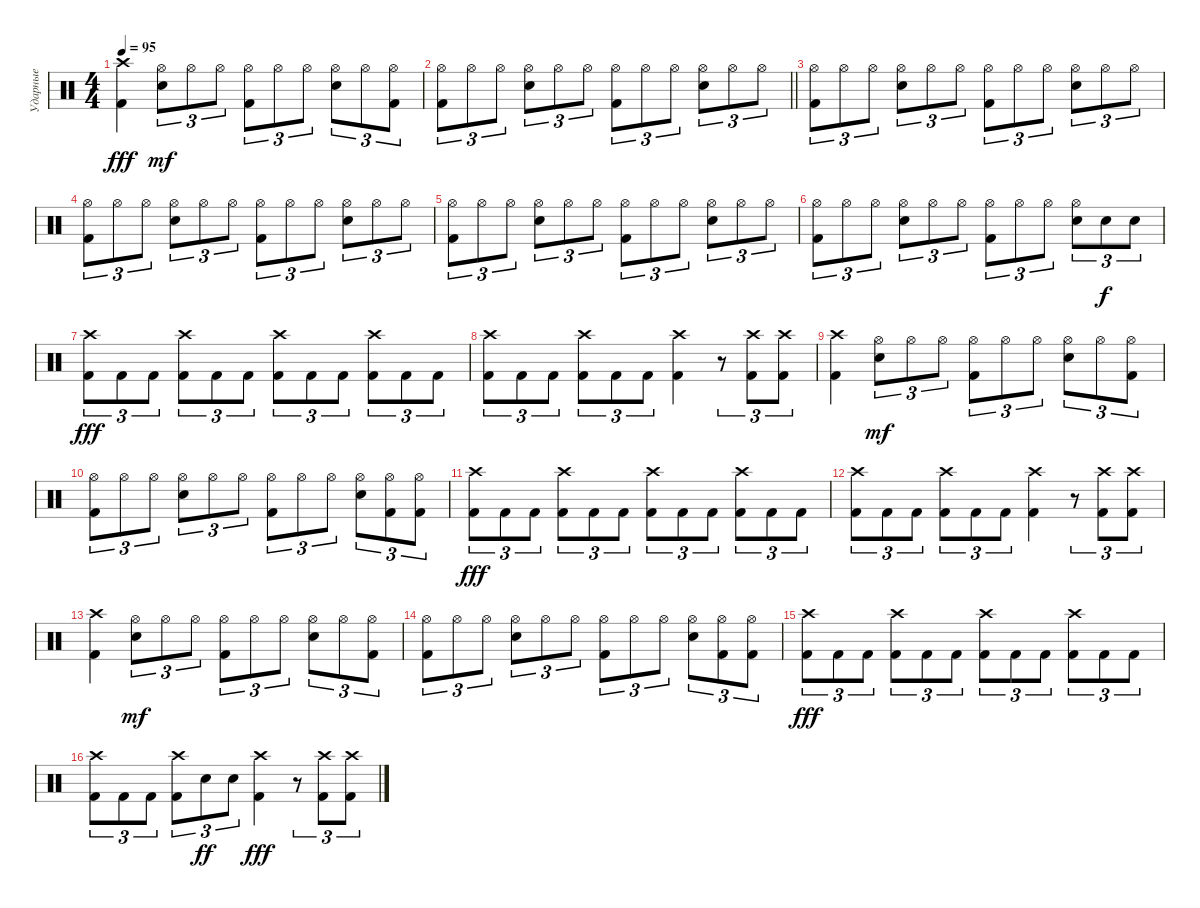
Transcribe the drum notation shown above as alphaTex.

\track ("Ударные" "Ударные") {instrument percussion}
\staff
\articulation defaults
\ts (4 4)
\tempo 95
\clef neutral
\ks c
("Kick (hit) 2" "Crash high (hit)").4{dy fff} ("Snare (hit) 2" "Hi-Hat (open)").8{tu (3 2) dy mf} "Hi-Hat (open)".8{tu (3 2)} "Hi-Hat (open)".8{tu (3 2)} ("Kick (hit) 2" "Hi-Hat (open)").8{tu (3 2)} "Hi-Hat (open)".8{tu (3 2)} "Hi-Hat (open)".8{tu (3 2)} ("Snare (hit) 2" "Hi-Hat (open)").8{tu (3 2)} "Hi-Hat (open)".8{tu (3 2)} ("Kick (hit) 2" "Hi-Hat (open)").8{tu (3 2)} |
\barLineRight lightlight
("Kick (hit) 2" "Hi-Hat (open)").8{tu (3 2)} "Hi-Hat (open)".8{tu (3 2)} "Hi-Hat (open)".8{tu (3 2)} ("Snare (hit) 2" "Hi-Hat (open)").8{tu (3 2)} "Hi-Hat (open)".8{tu (3 2)} "Hi-Hat (open)".8{tu (3 2)} ("Kick (hit) 2" "Hi-Hat (open)").8{tu (3 2)} "Hi-Hat (open)".8{tu (3 2)} "Hi-Hat (open)".8{tu (3 2)} ("Snare (hit) 2" "Hi-Hat (open)").8{tu (3 2)} "Hi-Hat (open)".8{tu (3 2)} "Hi-Hat (open)".8{tu (3 2)} |
("Kick (hit) 2" "Hi-Hat (open)").8{tu (3 2)} "Hi-Hat (open)".8{tu (3 2)} "Hi-Hat (open)".8{tu (3 2)} ("Snare (hit) 2" "Hi-Hat (open)").8{tu (3 2)} "Hi-Hat (open)".8{tu (3 2)} "Hi-Hat (open)".8{tu (3 2)} ("Kick (hit) 2" "Hi-Hat (open)").8{tu (3 2)} "Hi-Hat (open)".8{tu (3 2)} "Hi-Hat (open)".8{tu (3 2)} ("Snare (hit) 2" "Hi-Hat (open)").8{tu (3 2)} "Hi-Hat (open)".8{tu (3 2)} "Hi-Hat (open)".8{tu (3 2)} |
("Kick (hit) 2" "Hi-Hat (open)").8{tu (3 2)} "Hi-Hat (open)".8{tu (3 2)} "Hi-Hat (open)".8{tu (3 2)} ("Snare (hit) 2" "Hi-Hat (open)").8{tu (3 2)} "Hi-Hat (open)".8{tu (3 2)} "Hi-Hat (open)".8{tu (3 2)} ("Kick (hit) 2" "Hi-Hat (open)").8{tu (3 2)} "Hi-Hat (open)".8{tu (3 2)} "Hi-Hat (open)".8{tu (3 2)} ("Snare (hit) 2" "Hi-Hat (open)").8{tu (3 2)} "Hi-Hat (open)".8{tu (3 2)} "Hi-Hat (open)".8{tu (3 2)} |
("Kick (hit) 2" "Hi-Hat (open)").8{tu (3 2)} "Hi-Hat (open)".8{tu (3 2)} "Hi-Hat (open)".8{tu (3 2)} ("Snare (hit) 2" "Hi-Hat (open)").8{tu (3 2)} "Hi-Hat (open)".8{tu (3 2)} "Hi-Hat (open)".8{tu (3 2)} ("Kick (hit) 2" "Hi-Hat (open)").8{tu (3 2)} "Hi-Hat (open)".8{tu (3 2)} "Hi-Hat (open)".8{tu (3 2)} ("Snare (hit) 2" "Hi-Hat (open)").8{tu (3 2)} "Hi-Hat (open)".8{tu (3 2)} "Hi-Hat (open)".8{tu (3 2)} |
("Kick (hit) 2" "Hi-Hat (open)").8{tu (3 2)} "Hi-Hat (open)".8{tu (3 2)} "Hi-Hat (open)".8{tu (3 2)} ("Snare (hit) 2" "Hi-Hat (open)").8{tu (3 2)} "Hi-Hat (open)".8{tu (3 2)} "Hi-Hat (open)".8{tu (3 2)} ("Kick (hit) 2" "Hi-Hat (open)").8{tu (3 2)} "Hi-Hat (open)".8{tu (3 2)} "Hi-Hat (open)".8{tu (3 2)} ("Snare (hit) 2" "Hi-Hat (open)").8{tu (3 2)} "Snare (hit) 2".8{tu (3 2) dy f} "Snare (hit) 2".8{tu (3 2)} |
("Kick (hit) 2" "Crash high (hit)").8{tu (3 2) dy fff} "Kick (hit) 2".8{tu (3 2)} "Kick (hit) 2".8{tu (3 2)} ("Kick (hit) 2" "Crash high (hit)").8{tu (3 2)} "Kick (hit) 2".8{tu (3 2)} "Kick (hit) 2".8{tu (3 2)} ("Kick (hit) 2" "Crash high (hit)").8{tu (3 2)} "Kick (hit) 2".8{tu (3 2)} "Kick (hit) 2".8{tu (3 2)} ("Kick (hit) 2" "Crash high (hit)").8{tu (3 2)} "Kick (hit) 2".8{tu (3 2)} "Kick (hit) 2".8{tu (3 2)} |
("Kick (hit) 2" "Crash high (hit)").8{tu (3 2)} "Kick (hit) 2".8{tu (3 2)} "Kick (hit) 2".8{tu (3 2)} ("Kick (hit) 2" "Crash high (hit)").8{tu (3 2)} "Kick (hit) 2".8{tu (3 2)} "Kick (hit) 2".8{tu (3 2)} ("Kick (hit) 2" "Crash high (hit)").4 r.8{tu (3 2)} ("Kick (hit) 2" "Crash high (hit)").8{tu (3 2)} ("Kick (hit) 2" "Crash high (hit)").8{tu (3 2)} |
("Kick (hit) 2" "Crash high (hit)").4 ("Snare (hit) 2" "Hi-Hat (open)").8{tu (3 2) dy mf} "Hi-Hat (open)".8{tu (3 2)} "Hi-Hat (open)".8{tu (3 2)} ("Kick (hit) 2" "Hi-Hat (open)").8{tu (3 2)} "Hi-Hat (open)".8{tu (3 2)} "Hi-Hat (open)".8{tu (3 2)} ("Snare (hit) 2" "Hi-Hat (open)").8{tu (3 2)} "Hi-Hat (open)".8{tu (3 2)} ("Kick (hit) 2" "Hi-Hat (open)").8{tu (3 2)} |
("Kick (hit) 2" "Hi-Hat (open)").8{tu (3 2)} "Hi-Hat (open)".8{tu (3 2)} "Hi-Hat (open)".8{tu (3 2)} ("Snare (hit) 2" "Hi-Hat (open)").8{tu (3 2)} "Hi-Hat (open)".8{tu (3 2)} "Hi-Hat (open)".8{tu (3 2)} ("Kick (hit) 2" "Hi-Hat (open)").8{tu (3 2)} "Hi-Hat (open)".8{tu (3 2)} "Hi-Hat (open)".8{tu (3 2)} ("Snare (hit) 2" "Hi-Hat (open)").8{tu (3 2)} ("Kick (hit) 2" "Hi-Hat (open)").8{tu (3 2)} ("Kick (hit) 2" "Hi-Hat (open)").8{tu (3 2)} |
("Kick (hit) 2" "Crash high (hit)").8{tu (3 2) dy fff} "Kick (hit) 2".8{tu (3 2)} "Kick (hit) 2".8{tu (3 2)} ("Kick (hit) 2" "Crash high (hit)").8{tu (3 2)} "Kick (hit) 2".8{tu (3 2)} "Kick (hit) 2".8{tu (3 2)} ("Kick (hit) 2" "Crash high (hit)").8{tu (3 2)} "Kick (hit) 2".8{tu (3 2)} "Kick (hit) 2".8{tu (3 2)} ("Kick (hit) 2" "Crash high (hit)").8{tu (3 2)} "Kick (hit) 2".8{tu (3 2)} "Kick (hit) 2".8{tu (3 2)} |
("Kick (hit) 2" "Crash high (hit)").8{tu (3 2)} "Kick (hit) 2".8{tu (3 2)} "Kick (hit) 2".8{tu (3 2)} ("Kick (hit) 2" "Crash high (hit)").8{tu (3 2)} "Kick (hit) 2".8{tu (3 2)} "Kick (hit) 2".8{tu (3 2)} ("Kick (hit) 2" "Crash high (hit)").4 r.8{tu (3 2)} ("Kick (hit) 2" "Crash high (hit)").8{tu (3 2)} ("Kick (hit) 2" "Crash high (hit)").8{tu (3 2)} |
("Kick (hit) 2" "Crash high (hit)").4 ("Snare (hit) 2" "Hi-Hat (open)").8{tu (3 2) dy mf} "Hi-Hat (open)".8{tu (3 2)} "Hi-Hat (open)".8{tu (3 2)} ("Kick (hit) 2" "Hi-Hat (open)").8{tu (3 2)} "Hi-Hat (open)".8{tu (3 2)} "Hi-Hat (open)".8{tu (3 2)} ("Snare (hit) 2" "Hi-Hat (open)").8{tu (3 2)} "Hi-Hat (open)".8{tu (3 2)} ("Kick (hit) 2" "Hi-Hat (open)").8{tu (3 2)} |
("Kick (hit) 2" "Hi-Hat (open)").8{tu (3 2)} "Hi-Hat (open)".8{tu (3 2)} "Hi-Hat (open)".8{tu (3 2)} ("Snare (hit) 2" "Hi-Hat (open)").8{tu (3 2)} "Hi-Hat (open)".8{tu (3 2)} "Hi-Hat (open)".8{tu (3 2)} ("Kick (hit) 2" "Hi-Hat (open)").8{tu (3 2)} "Hi-Hat (open)".8{tu (3 2)} "Hi-Hat (open)".8{tu (3 2)} ("Snare (hit) 2" "Hi-Hat (open)").8{tu (3 2)} ("Kick (hit) 2" "Hi-Hat (open)").8{tu (3 2)} ("Kick (hit) 2" "Hi-Hat (open)").8{tu (3 2)} |
("Kick (hit) 2" "Crash high (hit)").8{tu (3 2) dy fff} "Kick (hit) 2".8{tu (3 2)} "Kick (hit) 2".8{tu (3 2)} ("Kick (hit) 2" "Crash high (hit)").8{tu (3 2)} "Kick (hit) 2".8{tu (3 2)} "Kick (hit) 2".8{tu (3 2)} ("Kick (hit) 2" "Crash high (hit)").8{tu (3 2)} "Kick (hit) 2".8{tu (3 2)} "Kick (hit) 2".8{tu (3 2)} ("Kick (hit) 2" "Crash high (hit)").8{tu (3 2)} "Kick (hit) 2".8{tu (3 2)} "Kick (hit) 2".8{tu (3 2)} |
("Kick (hit) 2" "Crash high (hit)").8{tu (3 2)} "Kick (hit) 2".8{tu (3 2)} "Kick (hit) 2".8{tu (3 2)} ("Kick (hit) 2" "Crash high (hit)").8{tu (3 2)} "Snare (hit) 2".8{tu (3 2) dy ff} "Snare (hit) 2".8{tu (3 2)} ("Kick (hit) 2" "Crash high (hit)").4{dy fff} r.8{tu (3 2)} ("Kick (hit) 2" "Crash high (hit)").8{tu (3 2)} ("Kick (hit) 2" "Crash high (hit)").8{tu (3 2)}
